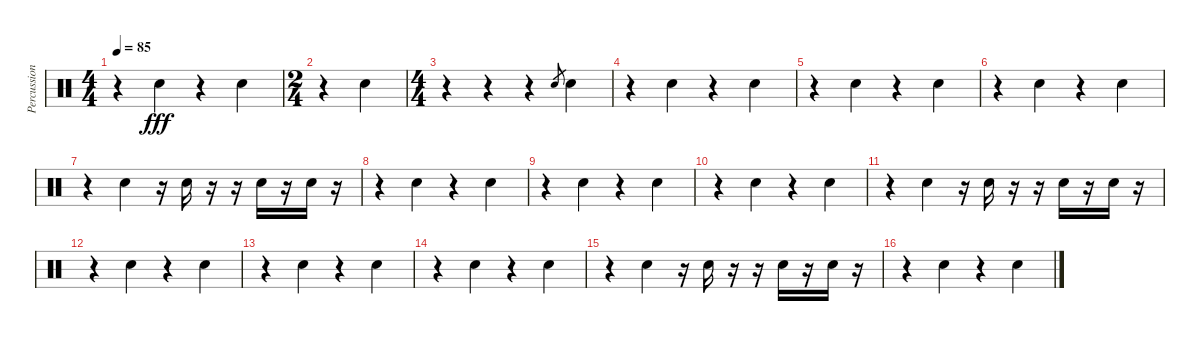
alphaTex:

\track ("Percussion" "Percussion") {instrument percussion}
\staff {score}
\articulation defaults
\ts (4 4)
\tempo 85
\clef neutral
\ks c
r.4{dy fff} "Snare (hit) 2".4 r.4 "Snare (hit) 2".4 |
\ts (2 4)
r.4 "Snare (hit) 2".4 |
\ts (4 4)
r.4 r.4 r.4 "Snare (hit) 2".8{gr} "Snare (hit) 2".4 |
r.4 "Snare (hit) 2".4 r.4 "Snare (hit) 2".4 |
r.4 "Snare (hit) 2".4 r.4 "Snare (hit) 2".4 |
r.4 "Snare (hit) 2".4 r.4 "Snare (hit) 2".4 |
r.4 "Snare (hit) 2".4 r.16 "Snare (hit) 2".16 r.16 r.16 "Snare (hit) 2".16 r.16 "Snare (hit) 2".16 r.16 |
r.4 "Snare (hit) 2".4 r.4 "Snare (hit) 2".4 |
r.4 "Snare (hit) 2".4 r.4 "Snare (hit) 2".4 |
r.4 "Snare (hit) 2".4 r.4 "Snare (hit) 2".4 |
r.4 "Snare (hit) 2".4 r.16 "Snare (hit) 2".16 r.16 r.16 "Snare (hit) 2".16 r.16 "Snare (hit) 2".16 r.16 |
r.4 "Snare (hit) 2".4 r.4 "Snare (hit) 2".4 |
r.4 "Snare (hit) 2".4 r.4 "Snare (hit) 2".4 |
r.4 "Snare (hit) 2".4 r.4 "Snare (hit) 2".4 |
r.4 "Snare (hit) 2".4 r.16 "Snare (hit) 2".16 r.16 r.16 "Snare (hit) 2".16 r.16 "Snare (hit) 2".16 r.16 |
r.4 "Snare (hit) 2".4 r.4 "Snare (hit) 2".4
